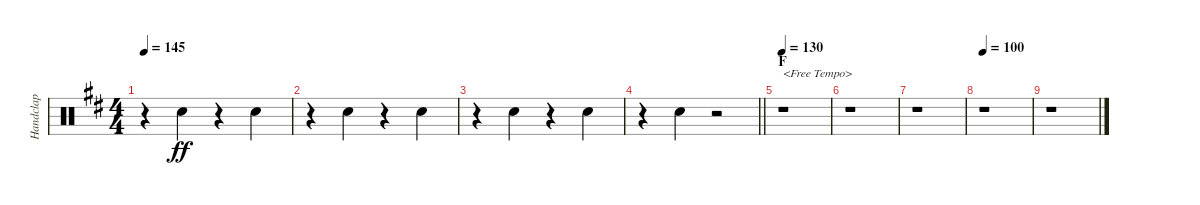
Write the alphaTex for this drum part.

\track ("Handclap" "Handclap") {instrument percussion}
\staff {score}
\articulation defaults
\ts (4 4)
\tempo 145
\clef neutral
\ks d
r.4{dy ff} "Hand Clap (hit)".4 r.4 "Hand Clap (hit)".4 |
r.4 "Hand Clap (hit)".4 r.4 "Hand Clap (hit)".4 |
r.4 "Hand Clap (hit)".4 r.4 "Hand Clap (hit)".4 |
\barLineRight lightlight
r.4 "Hand Clap (hit)".4 r.2 |
\section ("" "F")
\tempo 130
r.1{txt "<Free Tempo>"} |
r.1 |
r.1 |
\tempo 100
r.1 |
r.1
